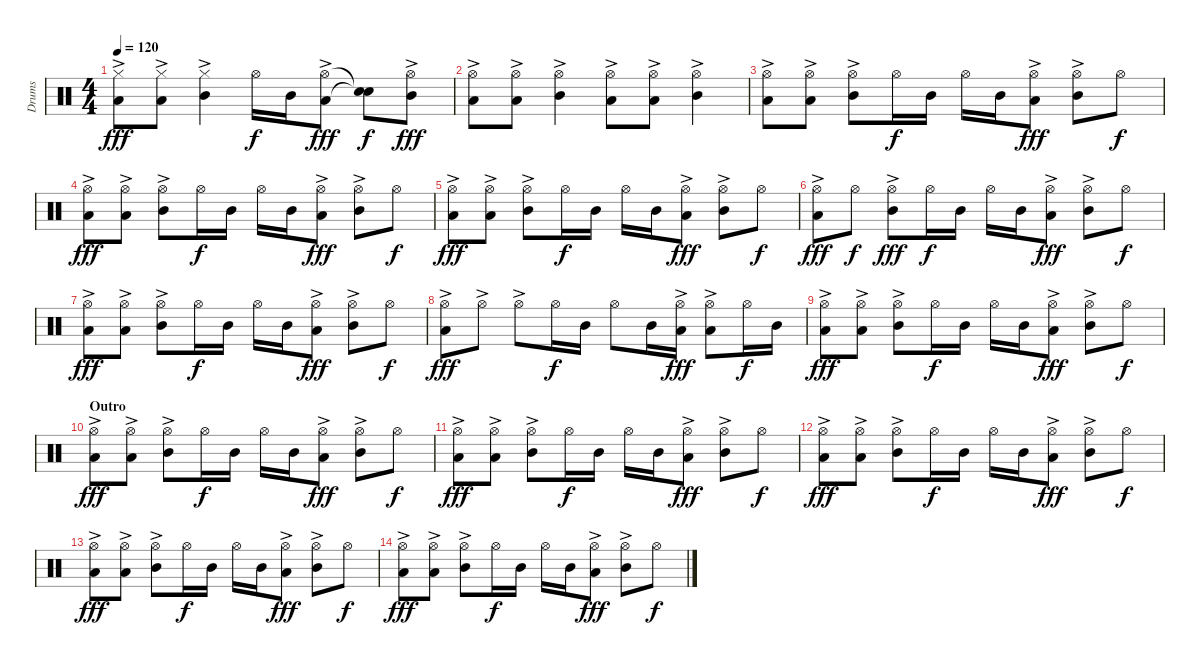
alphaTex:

\track ("Drums" "Drums") {instrument percussion}
\staff {score}
\articulation defaults
\ts (4 4)
\tempo 120
\clef neutral
\ks c
("Hi-Hat (closed)"{ac} "Low Floor Tom (hit)").8{dy fff} ("Hi-Hat (closed)"{ac} "Low Floor Tom (hit)").8 ("Hi-Hat (closed)"{ac} "Mid Tom (hit)").4 "Hi-Hat (open)".16{dy f} "Mid Tom (hit)".16 ("Hi-Hat (open)"{ac} "Low Floor Tom (hit)").8{dy fff} ("Snare (hit)"{t} "Snare (hit)"{t}).8{dy f} ("Hi-Hat (open)"{ac} "Mid Tom (hit)").8{dy fff} |
("Hi-Hat (open)"{ac} "Low Floor Tom (hit)").8 ("Hi-Hat (open)"{ac} "Low Floor Tom (hit)").8 ("Hi-Hat (open)"{ac} "Mid Tom (hit)").4 ("Hi-Hat (open)"{ac} "Low Floor Tom (hit)").8 ("Hi-Hat (open)"{ac} "Low Floor Tom (hit)").8 ("Hi-Hat (open)"{ac} "Mid Tom (hit)").4 |
("Hi-Hat (open)"{ac} "Low Floor Tom (hit)").8 ("Hi-Hat (open)"{ac} "Low Floor Tom (hit)").8 ("Hi-Hat (open)"{ac} "Mid Tom (hit)").8 "Hi-Hat (open)".16{dy f} "Mid Tom (hit)".16 "Hi-Hat (open)".16 "Mid Tom (hit)".16 ("Hi-Hat (open)"{ac} "Low Floor Tom (hit)").8{dy fff} ("Hi-Hat (open)"{ac} "Mid Tom (hit)").8 "Hi-Hat (open)".8{dy f} |
("Hi-Hat (open)"{ac} "Low Floor Tom (hit)").8{dy fff} ("Hi-Hat (open)"{ac} "Low Floor Tom (hit)").8 ("Hi-Hat (open)"{ac} "Mid Tom (hit)").8 "Hi-Hat (open)".16{dy f} "Mid Tom (hit)".16 "Hi-Hat (open)".16 "Mid Tom (hit)".16 ("Hi-Hat (open)"{ac} "Low Floor Tom (hit)").8{dy fff} ("Hi-Hat (open)"{ac} "Mid Tom (hit)").8 "Hi-Hat (open)".8{dy f} |
("Hi-Hat (open)"{ac} "Low Floor Tom (hit)").8{dy fff} ("Hi-Hat (open)"{ac} "Low Floor Tom (hit)").8 ("Hi-Hat (open)"{ac} "Mid Tom (hit)").8 "Hi-Hat (open)".16{dy f} "Mid Tom (hit)".16 "Hi-Hat (open)".16 "Mid Tom (hit)".16 ("Hi-Hat (open)"{ac} "Low Floor Tom (hit)").8{dy fff} ("Hi-Hat (open)"{ac} "Mid Tom (hit)").8 "Hi-Hat (open)".8{dy f} |
("Hi-Hat (open)"{ac} "Low Floor Tom (hit)").8{dy fff} "Hi-Hat (open)".8{dy f} ("Hi-Hat (open)"{ac} "Mid Tom (hit)").8{dy fff} "Hi-Hat (open)".16{dy f} "Mid Tom (hit)".16 "Hi-Hat (open)".16 "Mid Tom (hit)".16 ("Hi-Hat (open)"{ac} "Low Floor Tom (hit)").8{dy fff} ("Hi-Hat (open)"{ac} "Mid Tom (hit)").8 "Hi-Hat (open)".8{dy f} |
("Hi-Hat (open)"{ac} "Low Floor Tom (hit)").8{dy fff} ("Hi-Hat (open)"{ac} "Low Floor Tom (hit)").8 ("Hi-Hat (open)"{ac} "Mid Tom (hit)").8 "Hi-Hat (open)".16{dy f} "Mid Tom (hit)".16 "Hi-Hat (open)".16 "Mid Tom (hit)".16 ("Hi-Hat (open)"{ac} "Low Floor Tom (hit)").8{dy fff} ("Hi-Hat (open)"{ac} "Mid Tom (hit)").8 "Hi-Hat (open)".8{dy f} |
("Hi-Hat (open)"{ac} "Low Floor Tom (hit)").8{dy fff} "Hi-Hat (open)"{ac}.8 "Hi-Hat (open)"{ac}.8 "Hi-Hat (open)".16{dy f} "Mid Tom (hit)".16 "Hi-Hat (open)".8 "Mid Tom (hit)".16 ("Hi-Hat (open)"{ac} "Low Floor Tom (hit)").16{dy fff} ("Hi-Hat (open)"{ac} "Low Floor Tom (hit)").8 "Hi-Hat (open)".16{dy f} "Mid Tom (hit)".16 |
("Hi-Hat (open)"{ac} "Low Floor Tom (hit)").8{dy fff} ("Hi-Hat (open)"{ac} "Low Floor Tom (hit)").8 ("Hi-Hat (open)"{ac} "Mid Tom (hit)").8 "Hi-Hat (open)".16{dy f} "Mid Tom (hit)".16 "Hi-Hat (open)".16 "Mid Tom (hit)".16 ("Hi-Hat (open)"{ac} "Low Floor Tom (hit)").8{dy fff} ("Hi-Hat (open)"{ac} "Mid Tom (hit)").8 "Hi-Hat (open)".8{dy f} |
\section ("" "Outro")
("Hi-Hat (open)"{ac} "Low Floor Tom (hit)").8{dy fff} ("Hi-Hat (open)"{ac} "Low Floor Tom (hit)").8 ("Hi-Hat (open)"{ac} "Mid Tom (hit)").8 "Hi-Hat (open)".16{dy f} "Mid Tom (hit)".16 "Hi-Hat (open)".16 "Mid Tom (hit)".16 ("Hi-Hat (open)"{ac} "Low Floor Tom (hit)").8{dy fff} ("Hi-Hat (open)"{ac} "Mid Tom (hit)").8 "Hi-Hat (open)".8{dy f} |
("Hi-Hat (open)"{ac} "Low Floor Tom (hit)").8{dy fff} ("Hi-Hat (open)"{ac} "Low Floor Tom (hit)").8 ("Hi-Hat (open)"{ac} "Mid Tom (hit)").8 "Hi-Hat (open)".16{dy f} "Mid Tom (hit)".16 "Hi-Hat (open)".16 "Mid Tom (hit)".16 ("Hi-Hat (open)"{ac} "Low Floor Tom (hit)").8{dy fff} ("Hi-Hat (open)"{ac} "Mid Tom (hit)").8 "Hi-Hat (open)".8{dy f} |
("Hi-Hat (open)"{ac} "Low Floor Tom (hit)").8{dy fff} ("Hi-Hat (open)"{ac} "Low Floor Tom (hit)").8 ("Hi-Hat (open)"{ac} "Mid Tom (hit)").8 "Hi-Hat (open)".16{dy f} "Mid Tom (hit)".16 "Hi-Hat (open)".16 "Mid Tom (hit)".16 ("Hi-Hat (open)"{ac} "Low Floor Tom (hit)").8{dy fff} ("Hi-Hat (open)"{ac} "Mid Tom (hit)").8 "Hi-Hat (open)".8{dy f} |
("Hi-Hat (open)"{ac} "Low Floor Tom (hit)").8{dy fff} ("Hi-Hat (open)"{ac} "Low Floor Tom (hit)").8 ("Hi-Hat (open)"{ac} "Mid Tom (hit)").8 "Hi-Hat (open)".16{dy f} "Mid Tom (hit)".16 "Hi-Hat (open)".16 "Mid Tom (hit)".16 ("Hi-Hat (open)"{ac} "Low Floor Tom (hit)").8{dy fff} ("Hi-Hat (open)"{ac} "Mid Tom (hit)").8 "Hi-Hat (open)".8{dy f} |
("Hi-Hat (open)"{ac} "Low Floor Tom (hit)").8{dy fff} ("Hi-Hat (open)"{ac} "Low Floor Tom (hit)").8 ("Hi-Hat (open)"{ac} "Mid Tom (hit)").8 "Hi-Hat (open)".16{dy f} "Mid Tom (hit)".16 "Hi-Hat (open)".16 "Mid Tom (hit)".16 ("Hi-Hat (open)"{ac} "Low Floor Tom (hit)").8{dy fff} ("Hi-Hat (open)"{ac} "Mid Tom (hit)").8 "Hi-Hat (open)".8{dy f}
